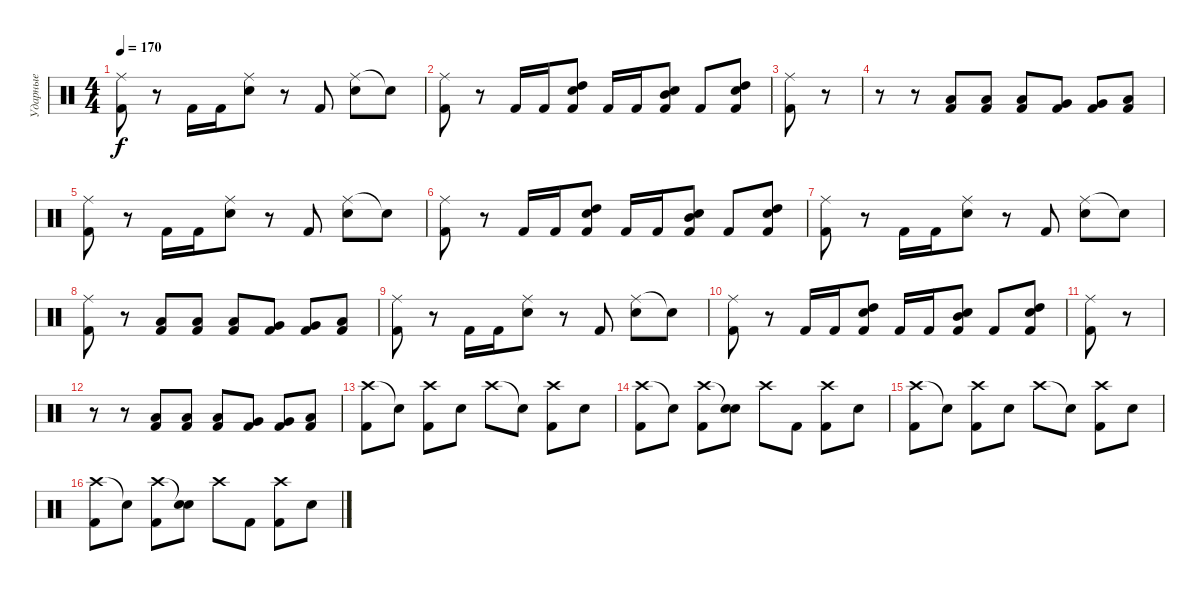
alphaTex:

\track ("Ударные" "Ударные") {instrument percussion}
\staff {score}
\articulation defaults
\ts (4 4)
\tempo 170
\clef neutral
\ks c
("Ride (middle)" "Kick (hit) 2").8{dy f} r.8 "Kick (hit) 2".16 "Kick (hit) 2".16 ("Ride (middle)" "Snare (hit) 2").8 r.8 "Kick (hit) 2".8 ("Ride (middle)" "Snare (hit) 2").8 "Snare (hit)"{t}.8 |
("Ride (middle)" "Kick (hit) 2").8 r.8 "Kick (hit) 2".16 "Kick (hit) 2".16 ("Snare (hit) 2" "Kick (hit) 2" "High Tom (hit)").8 "Kick (hit) 2".16 "Kick (hit) 2".16 ("Snare (hit) 2" "Kick (hit) 2" "Mid Tom (hit)").8 "Kick (hit) 2".8 ("Snare (hit) 2" "Kick (hit) 2" "High Tom (hit)").8 |
("Ride (middle)" "Kick (hit) 2").8 r.8 |
r.8 r.8 ("Kick (hit) 2" "Low Floor Tom (hit)").8 ("Kick (hit) 2" "Low Floor Tom (hit)").8 ("Kick (hit) 2" "Low Floor Tom (hit)").8 ("Kick (hit) 2" "Very Low Tom (hit)").8 ("Kick (hit) 2" "Very Low Tom (hit)").8 ("Kick (hit) 2" "Low Tom (hit)").8 |
("Ride (middle)" "Kick (hit) 2").8 r.8 "Kick (hit) 2".16 "Kick (hit) 2".16 ("Ride (middle)" "Snare (hit) 2").8 r.8 "Kick (hit) 2".8 ("Ride (middle)" "Snare (hit) 2").8 "Snare (hit)"{t}.8 |
("Ride (middle)" "Kick (hit) 2").8 r.8 "Kick (hit) 2".16 "Kick (hit) 2".16 ("Snare (hit) 2" "Kick (hit) 2" "High Tom (hit)").8 "Kick (hit) 2".16 "Kick (hit) 2".16 ("Snare (hit) 2" "Kick (hit) 2" "Mid Tom (hit)").8 "Kick (hit) 2".8 ("Snare (hit) 2" "Kick (hit) 2" "High Tom (hit)").8 |
("Ride (middle)" "Kick (hit) 2").8 r.8 "Kick (hit) 2".16 "Kick (hit) 2".16 ("Ride (middle)" "Snare (hit) 2").8 r.8 "Kick (hit) 2".8 ("Ride (middle)" "Snare (hit) 2").8 "Snare (hit)"{t}.8 |
("Ride (middle)" "Kick (hit) 2").8 r.8 ("Kick (hit) 2" "Low Floor Tom (hit)").8 ("Kick (hit) 2" "Low Floor Tom (hit)").8 ("Kick (hit) 2" "Low Floor Tom (hit)").8 ("Kick (hit) 2" "Very Low Tom (hit)").8 ("Kick (hit) 2" "Very Low Tom (hit)").8 ("Kick (hit) 2" "Low Tom (hit)").8 |
("Ride (middle)" "Kick (hit) 2").8 r.8 "Kick (hit) 2".16 "Kick (hit) 2".16 ("Ride (middle)" "Snare (hit) 2").8 r.8 "Kick (hit) 2".8 ("Ride (middle)" "Snare (hit) 2").8 "Snare (hit)"{t}.8 |
("Ride (middle)" "Kick (hit) 2").8 r.8 "Kick (hit) 2".16 "Kick (hit) 2".16 ("Snare (hit) 2" "Kick (hit) 2" "High Tom (hit)").8 "Kick (hit) 2".16 "Kick (hit) 2".16 ("Snare (hit) 2" "Kick (hit) 2" "Mid Tom (hit)").8 "Kick (hit) 2".8 ("Snare (hit) 2" "Kick (hit) 2" "High Tom (hit)").8 |
("Ride (middle)" "Kick (hit) 2").8 r.8 |
r.8 r.8 ("Kick (hit) 2" "Low Floor Tom (hit)").8 ("Kick (hit) 2" "Low Floor Tom (hit)").8 ("Kick (hit) 2" "Low Floor Tom (hit)").8 ("Kick (hit) 2" "Very Low Tom (hit)").8 ("Kick (hit) 2" "Very Low Tom (hit)").8 ("Kick (hit) 2" "Low Tom (hit)").8 |
("Crash high (hit)" "Kick (hit) 2").8 "Snare (hit)"{t}.8 ("Crash high (hit)" "Kick (hit) 2").8 "Snare (hit) 2".8 "Crash high (hit)".8 "Snare (hit)"{t}.8 ("Crash high (hit)" "Kick (hit) 2").8 "Snare (hit) 2".8 |
("Crash high (hit)" "Kick (hit) 2").8 "Snare (hit)"{t}.8 ("Crash high (hit)" "Kick (hit) 2").8 ("Snare (hit)"{t} "Snare (hit) 2").8 "Crash high (hit)".8 "Kick (hit) 2".8 ("Crash high (hit)" "Kick (hit) 2").8 "Snare (hit) 2".8 |
("Crash high (hit)" "Kick (hit) 2").8 "Snare (hit)"{t}.8 ("Crash high (hit)" "Kick (hit) 2").8 "Snare (hit) 2".8 "Crash high (hit)".8 "Snare (hit)"{t}.8 ("Crash high (hit)" "Kick (hit) 2").8 "Snare (hit) 2".8 |
("Crash high (hit)" "Kick (hit) 2").8 "Snare (hit)"{t}.8 ("Crash high (hit)" "Kick (hit) 2").8 ("Snare (hit)"{t} "Snare (hit) 2").8 "Crash high (hit)".8 "Kick (hit) 2".8 ("Crash high (hit)" "Kick (hit) 2").8 "Snare (hit) 2".8
